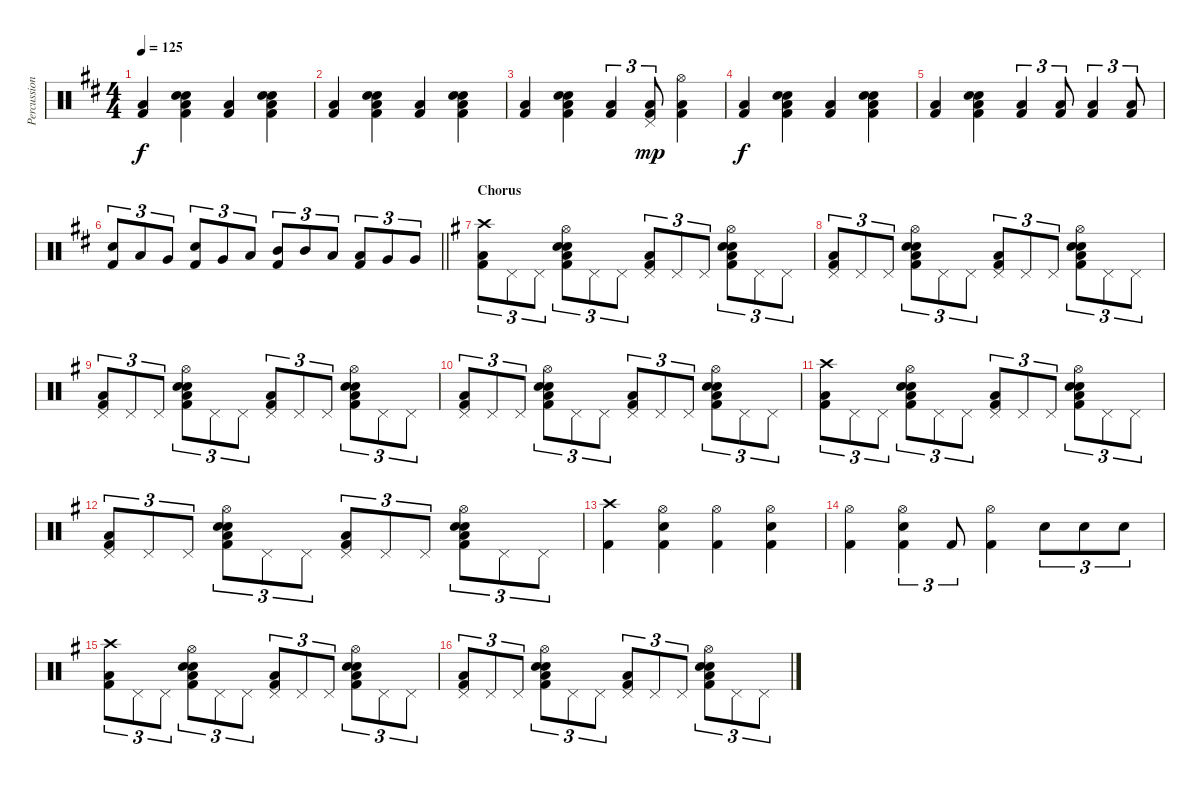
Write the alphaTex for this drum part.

\track ("Percussion" "Percussion") {instrument percussion}
\staff {score}
\articulation defaults
\ts (4 4)
\tempo 125
\clef neutral
\ks bminor
("Low Floor Tom (hit)" "Kick (hit) 2").4{dy f} ("Electric Snare (hit)" "Hand Clap (hit)" "Low Floor Tom (hit)" "Kick (hit) 2").4 ("Low Floor Tom (hit)" "Kick (hit) 2").4 ("Electric Snare (hit)" "Hand Clap (hit)" "Low Floor Tom (hit)" "Kick (hit) 2").4 |
("Low Floor Tom (hit)" "Kick (hit) 2").4 ("Electric Snare (hit)" "Hand Clap (hit)" "Low Floor Tom (hit)" "Kick (hit) 2").4 ("Low Floor Tom (hit)" "Kick (hit) 2").4 ("Electric Snare (hit)" "Hand Clap (hit)" "Low Floor Tom (hit)" "Kick (hit) 2").4 |
("Low Floor Tom (hit)" "Kick (hit) 2").4 ("Electric Snare (hit)" "Hand Clap (hit)" "Low Floor Tom (hit)" "Kick (hit) 2").4 ("Low Floor Tom (hit)" "Kick (hit) 2").4{tu (3 2)} ("Pedal Hi-Hat (hit)" "Low Floor Tom (hit)" "Kick (hit) 2").8{tu (3 2) dy mp} ("Hi-Hat (open)" "Low Floor Tom (hit)" "Kick (hit) 2").4 |
("Low Floor Tom (hit)" "Kick (hit) 2").4{dy f} ("Electric Snare (hit)" "Hand Clap (hit)" "Low Floor Tom (hit)" "Kick (hit) 2").4 ("Low Floor Tom (hit)" "Kick (hit) 2").4 ("Electric Snare (hit)" "Hand Clap (hit)" "Low Floor Tom (hit)" "Kick (hit) 2").4 |
("Low Floor Tom (hit)" "Kick (hit) 2").4 ("Electric Snare (hit)" "Hand Clap (hit)" "Low Floor Tom (hit)" "Kick (hit) 2").4 ("Low Floor Tom (hit)" "Kick (hit) 2").4{tu (3 2)} ("Low Floor Tom (hit)" "Kick (hit) 2").8{tu (3 2)} ("Low Floor Tom (hit)" "Kick (hit) 2").4{tu (3 2)} ("Low Floor Tom (hit)" "Kick (hit) 2").8{tu (3 2)} |
\barLineRight lightlight
("Electric Snare (hit)" "Kick (hit) 2").8{tu (3 2)} "Low Tom (hit)".8{tu (3 2)} "Very Low Tom (hit)".8{tu (3 2)} ("Electric Snare (hit)" "Kick (hit) 2").8{tu (3 2)} "Very Low Tom (hit)".8{tu (3 2)} "Low Floor Tom (hit)".8{tu (3 2)} ("Mid Tom (hit)" "Kick (hit) 2").8{tu (3 2)} "Mid Tom (hit)".8{tu (3 2)} "Low Tom (hit)".8{tu (3 2)} ("Low Tom (hit)" "Kick (hit) 2").8{tu (3 2)} "Very Low Tom (hit)".8{tu (3 2)} "Very Low Tom (hit)".8{tu (3 2)} |
\section ("" "Chorus")
\ks eminor
("Crash high (hit)" "Low Floor Tom (hit)" "Kick (hit) 2").8{tu (3 2)} "Pedal Hi-Hat (hit)".8{tu (3 2)} "Pedal Hi-Hat (hit)".8{tu (3 2)} ("Hi-Hat (open)" "Electric Snare (hit)" "Hand Clap (hit)" "Low Floor Tom (hit)" "Kick (hit) 2").8{tu (3 2)} "Pedal Hi-Hat (hit)".8{tu (3 2)} "Pedal Hi-Hat (hit)".8{tu (3 2)} ("Pedal Hi-Hat (hit)" "Low Floor Tom (hit)" "Kick (hit) 2").8{tu (3 2)} "Pedal Hi-Hat (hit)".8{tu (3 2)} "Pedal Hi-Hat (hit)".8{tu (3 2)} ("Hi-Hat (open)" "Electric Snare (hit)" "Hand Clap (hit)" "Low Floor Tom (hit)" "Kick (hit) 2").8{tu (3 2)} "Pedal Hi-Hat (hit)".8{tu (3 2)} "Pedal Hi-Hat (hit)".8{tu (3 2)} |
("Pedal Hi-Hat (hit)" "Low Floor Tom (hit)" "Kick (hit) 2").8{tu (3 2)} "Pedal Hi-Hat (hit)".8{tu (3 2)} "Pedal Hi-Hat (hit)".8{tu (3 2)} ("Hi-Hat (open)" "Electric Snare (hit)" "Hand Clap (hit)" "Low Floor Tom (hit)" "Kick (hit) 2").8{tu (3 2)} "Pedal Hi-Hat (hit)".8{tu (3 2)} "Pedal Hi-Hat (hit)".8{tu (3 2)} ("Pedal Hi-Hat (hit)" "Low Floor Tom (hit)" "Kick (hit) 2").8{tu (3 2)} "Pedal Hi-Hat (hit)".8{tu (3 2)} "Pedal Hi-Hat (hit)".8{tu (3 2)} ("Hi-Hat (open)" "Electric Snare (hit)" "Hand Clap (hit)" "Low Floor Tom (hit)" "Kick (hit) 2").8{tu (3 2)} "Pedal Hi-Hat (hit)".8{tu (3 2)} "Pedal Hi-Hat (hit)".8{tu (3 2)} |
("Pedal Hi-Hat (hit)" "Low Floor Tom (hit)" "Kick (hit) 2").8{tu (3 2)} "Pedal Hi-Hat (hit)".8{tu (3 2)} "Pedal Hi-Hat (hit)".8{tu (3 2)} ("Hi-Hat (open)" "Electric Snare (hit)" "Hand Clap (hit)" "Low Floor Tom (hit)" "Kick (hit) 2").8{tu (3 2)} "Pedal Hi-Hat (hit)".8{tu (3 2)} "Pedal Hi-Hat (hit)".8{tu (3 2)} ("Pedal Hi-Hat (hit)" "Low Floor Tom (hit)" "Kick (hit) 2").8{tu (3 2)} "Pedal Hi-Hat (hit)".8{tu (3 2)} "Pedal Hi-Hat (hit)".8{tu (3 2)} ("Hi-Hat (open)" "Electric Snare (hit)" "Hand Clap (hit)" "Low Floor Tom (hit)" "Kick (hit) 2").8{tu (3 2)} "Pedal Hi-Hat (hit)".8{tu (3 2)} "Pedal Hi-Hat (hit)".8{tu (3 2)} |
("Pedal Hi-Hat (hit)" "Low Floor Tom (hit)" "Kick (hit) 2").8{tu (3 2)} "Pedal Hi-Hat (hit)".8{tu (3 2)} "Pedal Hi-Hat (hit)".8{tu (3 2)} ("Hi-Hat (open)" "Electric Snare (hit)" "Hand Clap (hit)" "Low Floor Tom (hit)" "Kick (hit) 2").8{tu (3 2)} "Pedal Hi-Hat (hit)".8{tu (3 2)} "Pedal Hi-Hat (hit)".8{tu (3 2)} ("Pedal Hi-Hat (hit)" "Low Floor Tom (hit)" "Kick (hit) 2").8{tu (3 2)} "Pedal Hi-Hat (hit)".8{tu (3 2)} "Pedal Hi-Hat (hit)".8{tu (3 2)} ("Hi-Hat (open)" "Electric Snare (hit)" "Hand Clap (hit)" "Low Floor Tom (hit)" "Kick (hit) 2").8{tu (3 2)} "Pedal Hi-Hat (hit)".8{tu (3 2)} "Pedal Hi-Hat (hit)".8{tu (3 2)} |
("Crash high (hit)" "Low Floor Tom (hit)" "Kick (hit) 2").8{tu (3 2)} "Pedal Hi-Hat (hit)".8{tu (3 2)} "Pedal Hi-Hat (hit)".8{tu (3 2)} ("Hi-Hat (open)" "Electric Snare (hit)" "Hand Clap (hit)" "Low Floor Tom (hit)" "Kick (hit) 2").8{tu (3 2)} "Pedal Hi-Hat (hit)".8{tu (3 2)} "Pedal Hi-Hat (hit)".8{tu (3 2)} ("Pedal Hi-Hat (hit)" "Low Floor Tom (hit)" "Kick (hit) 2").8{tu (3 2)} "Pedal Hi-Hat (hit)".8{tu (3 2)} "Pedal Hi-Hat (hit)".8{tu (3 2)} ("Hi-Hat (open)" "Electric Snare (hit)" "Hand Clap (hit)" "Low Floor Tom (hit)" "Kick (hit) 2").8{tu (3 2)} "Pedal Hi-Hat (hit)".8{tu (3 2)} "Pedal Hi-Hat (hit)".8{tu (3 2)} |
("Pedal Hi-Hat (hit)" "Low Floor Tom (hit)" "Kick (hit) 2").8{tu (3 2)} "Pedal Hi-Hat (hit)".8{tu (3 2)} "Pedal Hi-Hat (hit)".8{tu (3 2)} ("Hi-Hat (open)" "Electric Snare (hit)" "Hand Clap (hit)" "Low Floor Tom (hit)" "Kick (hit) 2").8{tu (3 2)} "Pedal Hi-Hat (hit)".8{tu (3 2)} "Pedal Hi-Hat (hit)".8{tu (3 2)} ("Pedal Hi-Hat (hit)" "Low Floor Tom (hit)" "Kick (hit) 2").8{tu (3 2)} "Pedal Hi-Hat (hit)".8{tu (3 2)} "Pedal Hi-Hat (hit)".8{tu (3 2)} ("Hi-Hat (open)" "Electric Snare (hit)" "Hand Clap (hit)" "Low Floor Tom (hit)" "Kick (hit) 2").8{tu (3 2)} "Pedal Hi-Hat (hit)".8{tu (3 2)} "Pedal Hi-Hat (hit)".8{tu (3 2)} |
("Crash high (hit)" "Kick (hit) 2").4 ("Hi-Hat (open)" "Electric Snare (hit)" "Kick (hit) 2").4 ("Hi-Hat (open)" "Kick (hit) 2").4 ("Hi-Hat (open)" "Electric Snare (hit)" "Kick (hit) 2").4 |
("Hi-Hat (open)" "Kick (hit) 2").4 ("Hi-Hat (open)" "Electric Snare (hit)" "Kick (hit) 2").4{tu (3 2)} "Kick (hit) 2".8{tu (3 2)} ("Hi-Hat (open)" "Kick (hit) 2").4 "Electric Snare (hit)".8{tu (3 2)} "Electric Snare (hit)".8{tu (3 2)} "Electric Snare (hit)".8{tu (3 2)} |
("Crash high (hit)" "Low Floor Tom (hit)" "Kick (hit) 2").8{tu (3 2)} "Pedal Hi-Hat (hit)".8{tu (3 2)} "Pedal Hi-Hat (hit)".8{tu (3 2)} ("Hi-Hat (open)" "Electric Snare (hit)" "Hand Clap (hit)" "Low Floor Tom (hit)" "Kick (hit) 2").8{tu (3 2)} "Pedal Hi-Hat (hit)".8{tu (3 2)} "Pedal Hi-Hat (hit)".8{tu (3 2)} ("Pedal Hi-Hat (hit)" "Low Floor Tom (hit)" "Kick (hit) 2").8{tu (3 2)} "Pedal Hi-Hat (hit)".8{tu (3 2)} "Pedal Hi-Hat (hit)".8{tu (3 2)} ("Hi-Hat (open)" "Electric Snare (hit)" "Hand Clap (hit)" "Low Floor Tom (hit)" "Kick (hit) 2").8{tu (3 2)} "Pedal Hi-Hat (hit)".8{tu (3 2)} "Pedal Hi-Hat (hit)".8{tu (3 2)} |
("Pedal Hi-Hat (hit)" "Low Floor Tom (hit)" "Kick (hit) 2").8{tu (3 2)} "Pedal Hi-Hat (hit)".8{tu (3 2)} "Pedal Hi-Hat (hit)".8{tu (3 2)} ("Hi-Hat (open)" "Electric Snare (hit)" "Hand Clap (hit)" "Low Floor Tom (hit)" "Kick (hit) 2").8{tu (3 2)} "Pedal Hi-Hat (hit)".8{tu (3 2)} "Pedal Hi-Hat (hit)".8{tu (3 2)} ("Pedal Hi-Hat (hit)" "Low Floor Tom (hit)" "Kick (hit) 2").8{tu (3 2)} "Pedal Hi-Hat (hit)".8{tu (3 2)} "Pedal Hi-Hat (hit)".8{tu (3 2)} ("Hi-Hat (open)" "Electric Snare (hit)" "Hand Clap (hit)" "Low Floor Tom (hit)" "Kick (hit) 2").8{tu (3 2)} "Pedal Hi-Hat (hit)".8{tu (3 2)} "Pedal Hi-Hat (hit)".8{tu (3 2)}
